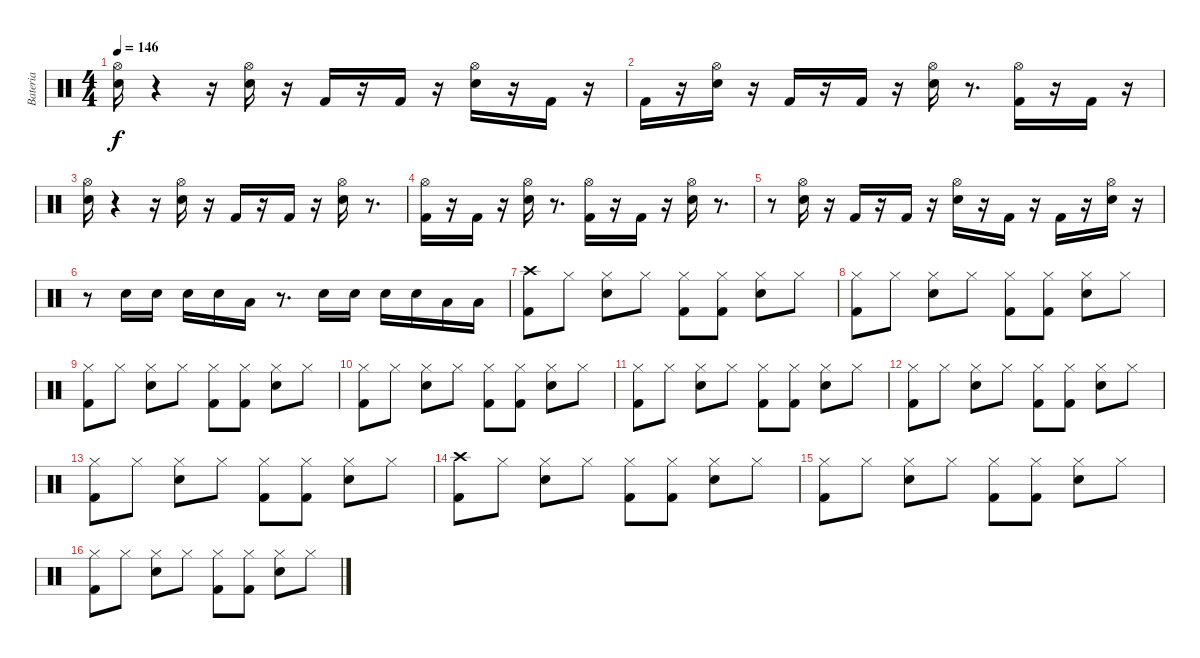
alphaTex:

\track ("Bateria" "Bateria") {instrument percussion}
\staff {score}
\articulation defaults
\ts (4 4)
\tempo 146
\clef neutral
\ks c
("Hi-Hat (open)" "Electric Snare (hit)").16{dy f} r.4 r.16 ("Hi-Hat (open)" "Electric Snare (hit)").16 r.16 "Kick (hit) 2".16 r.16 "Kick (hit) 2".16 r.16 ("Electric Snare (hit)" "Hi-Hat (open)").16 r.16 "Kick (hit) 2".16 r.16 |
"Kick (hit) 2".16 r.16 ("Hi-Hat (open)" "Electric Snare (hit)").16 r.16 "Kick (hit) 2".16 r.16 "Kick (hit) 2".16 r.16 ("Hi-Hat (open)" "Electric Snare (hit)").16 r.8{d} ("Hi-Hat (open)" "Kick (hit) 2").16 r.16 "Kick (hit) 2".16 r.16 |
("Hi-Hat (open)" "Electric Snare (hit)").16 r.4 r.16 ("Electric Snare (hit)" "Hi-Hat (open)").16 r.16 "Kick (hit) 2".16 r.16 "Kick (hit) 2".16 r.16 ("Hi-Hat (open)" "Electric Snare (hit)").16 r.8{d} |
("Hi-Hat (open)" "Kick (hit) 2").16 r.16 "Kick (hit) 2".16 r.16 ("Hi-Hat (open)" "Electric Snare (hit)").16 r.8{d} ("Kick (hit) 2" "Hi-Hat (open)").16 r.16 "Kick (hit) 2".16 r.16 ("Hi-Hat (open)" "Electric Snare (hit)").16 r.8{d} |
r.8 ("Electric Snare (hit)" "Hi-Hat (open)").16 r.16 "Kick (hit) 2".16 r.16 "Kick (hit) 2".16 r.16 ("Hi-Hat (open)" "Electric Snare (hit)").16 r.16 "Kick (hit) 2".16 r.16 "Kick (hit) 2".16 r.16 ("Hi-Hat (open)" "Electric Snare (hit)").16 r.16 |
r.8 "Electric Snare (hit)".16 "Electric Snare (hit)".16 "Electric Snare (hit)".16 "Electric Snare (hit)".16 "Low Tom (hit)".16 r.8{d} "Electric Snare (hit)".16 "Electric Snare (hit)".16 "Electric Snare (hit)".16 "Electric Snare (hit)".16 "Low Floor Tom (hit)".16 "Low Floor Tom (hit)".16 |
("Kick (hit) 2" "Crash high (hit)").8 "Hi-Hat (closed)".8 ("Hi-Hat (closed)" "Electric Snare (hit)").8 "Hi-Hat (closed)".8 ("Hi-Hat (closed)" "Kick (hit) 2").8 ("Kick (hit) 2" "Hi-Hat (closed)").8 ("Electric Snare (hit)" "Hi-Hat (closed)").8 "Hi-Hat (closed)".8 |
("Hi-Hat (closed)" "Kick (hit) 2").8 "Hi-Hat (closed)".8 ("Hi-Hat (closed)" "Electric Snare (hit)").8 "Hi-Hat (closed)".8 ("Hi-Hat (closed)" "Kick (hit) 2").8 ("Kick (hit) 2" "Hi-Hat (closed)").8 ("Electric Snare (hit)" "Hi-Hat (closed)").8 "Hi-Hat (closed)".8 |
("Hi-Hat (closed)" "Kick (hit) 2").8 "Hi-Hat (closed)".8 ("Hi-Hat (closed)" "Electric Snare (hit)").8 "Hi-Hat (closed)".8 ("Hi-Hat (closed)" "Kick (hit) 2").8 ("Hi-Hat (closed)" "Kick (hit) 2").8 ("Electric Snare (hit)" "Hi-Hat (closed)").8 "Hi-Hat (closed)".8 |
("Hi-Hat (closed)" "Kick (hit) 2").8 "Hi-Hat (closed)".8 ("Hi-Hat (closed)" "Electric Snare (hit)").8 "Hi-Hat (closed)".8 ("Hi-Hat (closed)" "Kick (hit) 2").8 ("Kick (hit) 2" "Hi-Hat (closed)").8 ("Electric Snare (hit)" "Hi-Hat (closed)").8 "Hi-Hat (closed)".8 |
("Hi-Hat (closed)" "Kick (hit) 2").8 "Hi-Hat (closed)".8 ("Hi-Hat (closed)" "Electric Snare (hit)").8 "Hi-Hat (closed)".8 ("Hi-Hat (closed)" "Kick (hit) 2").8 ("Kick (hit) 2" "Hi-Hat (closed)").8 ("Electric Snare (hit)" "Hi-Hat (closed)").8 "Hi-Hat (closed)".8 |
("Hi-Hat (closed)" "Kick (hit) 2").8 "Hi-Hat (closed)".8 ("Hi-Hat (closed)" "Electric Snare (hit)").8 "Hi-Hat (closed)".8 ("Hi-Hat (closed)" "Kick (hit) 2").8 ("Kick (hit) 2" "Hi-Hat (closed)").8 ("Electric Snare (hit)" "Hi-Hat (closed)").8 "Hi-Hat (closed)".8 |
("Hi-Hat (closed)" "Kick (hit) 2").8 "Hi-Hat (closed)".8 ("Hi-Hat (closed)" "Electric Snare (hit)").8 "Hi-Hat (closed)".8 ("Hi-Hat (closed)" "Kick (hit) 2").8 ("Hi-Hat (closed)" "Kick (hit) 2").8 ("Electric Snare (hit)" "Hi-Hat (closed)").8 "Hi-Hat (closed)".8 |
("Crash high (hit)" "Kick (hit) 2").8 "Hi-Hat (closed)".8 ("Electric Snare (hit)" "Hi-Hat (closed)").8 "Hi-Hat (closed)".8 ("Kick (hit) 2" "Hi-Hat (closed)").8 ("Hi-Hat (closed)" "Kick (hit) 2").8 ("Hi-Hat (closed)" "Electric Snare (hit)").8 "Hi-Hat (closed)".8 |
("Kick (hit) 2" "Hi-Hat (closed)").8 "Hi-Hat (closed)".8 ("Electric Snare (hit)" "Hi-Hat (closed)").8 "Hi-Hat (closed)".8 ("Kick (hit) 2" "Hi-Hat (closed)").8 ("Hi-Hat (closed)" "Kick (hit) 2").8 ("Hi-Hat (closed)" "Electric Snare (hit)").8 "Hi-Hat (closed)".8 |
("Kick (hit) 2" "Hi-Hat (closed)").8 "Hi-Hat (closed)".8 ("Electric Snare (hit)" "Hi-Hat (closed)").8 "Hi-Hat (closed)".8 ("Kick (hit) 2" "Hi-Hat (closed)").8 ("Kick (hit) 2" "Hi-Hat (closed)").8 ("Hi-Hat (closed)" "Electric Snare (hit)").8 "Hi-Hat (closed)".8
